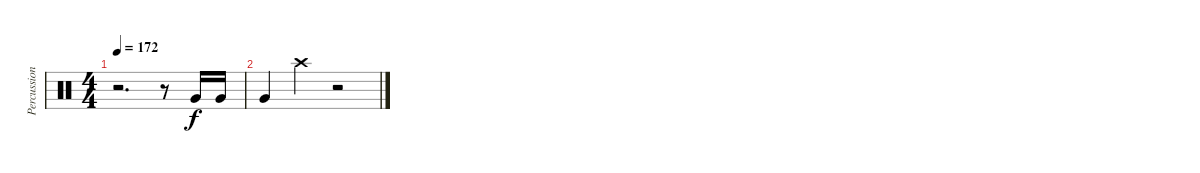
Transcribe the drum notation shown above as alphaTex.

\track ("Percussion" "Percussion") {instrument percussion}
\staff {score}
\articulation defaults
\ts (4 4)
\tempo 172
\clef neutral
\ks c
r.2{d dy f} r.8 "Very Low Tom (hit)".16 "Very Low Tom (hit)".16 |
"Very Low Tom (hit)".4 "Crash high (hit)".4 r.2
